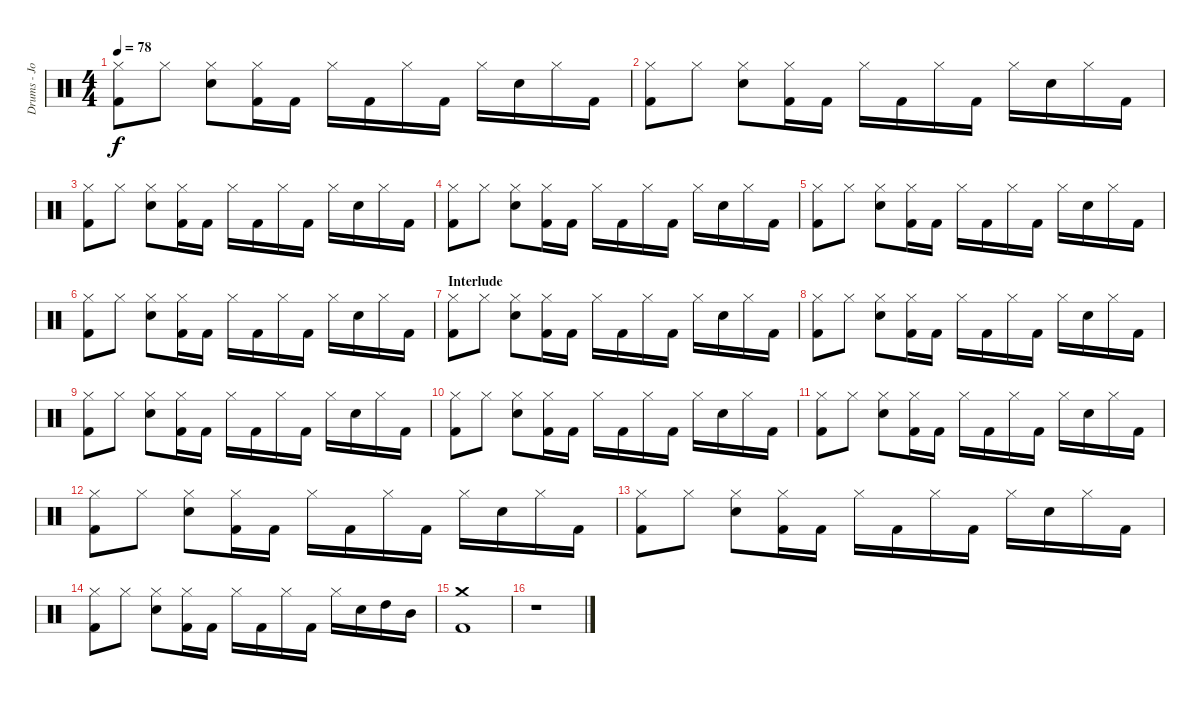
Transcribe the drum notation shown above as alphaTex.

\track ("Drums - Jorg Michael" "Drums - Jo") {instrument percussion}
\staff {score}
\articulation defaults
\ts (4 4)
\tempo 78
\clef neutral
\ks c
("Hi-Hat (closed)" "Kick (hit) 2").8{dy f} "Hi-Hat (closed)".8 ("Hi-Hat (closed)" "Electric Snare (hit)").8 ("Hi-Hat (closed)" "Kick (hit) 2").16 "Kick (hit) 2".16 "Hi-Hat (closed)".16 "Kick (hit) 2".16 "Hi-Hat (closed)".16 "Kick (hit) 2".16 "Hi-Hat (closed)".16 "Electric Snare (hit)".16 "Hi-Hat (closed)".16 "Kick (hit) 2".16 |
("Hi-Hat (closed)" "Kick (hit) 2").8 "Hi-Hat (closed)".8 ("Hi-Hat (closed)" "Electric Snare (hit)").8 ("Hi-Hat (closed)" "Kick (hit) 2").16 "Kick (hit) 2".16 "Hi-Hat (closed)".16 "Kick (hit) 2".16 "Hi-Hat (closed)".16 "Kick (hit) 2".16 "Hi-Hat (closed)".16 "Electric Snare (hit)".16 "Hi-Hat (closed)".16 "Kick (hit) 2".16 |
("Hi-Hat (closed)" "Kick (hit) 2").8 "Hi-Hat (closed)".8 ("Hi-Hat (closed)" "Electric Snare (hit)").8 ("Hi-Hat (closed)" "Kick (hit) 2").16 "Kick (hit) 2".16 "Hi-Hat (closed)".16 "Kick (hit) 2".16 "Hi-Hat (closed)".16 "Kick (hit) 2".16 "Hi-Hat (closed)".16 "Electric Snare (hit)".16 "Hi-Hat (closed)".16 "Kick (hit) 2".16 |
("Hi-Hat (closed)" "Kick (hit) 2").8 "Hi-Hat (closed)".8 ("Hi-Hat (closed)" "Electric Snare (hit)").8 ("Hi-Hat (closed)" "Kick (hit) 2").16 "Kick (hit) 2".16 "Hi-Hat (closed)".16 "Kick (hit) 2".16 "Hi-Hat (closed)".16 "Kick (hit) 2".16 "Hi-Hat (closed)".16 "Electric Snare (hit)".16 "Hi-Hat (closed)".16 "Kick (hit) 2".16 |
("Hi-Hat (closed)" "Kick (hit) 2").8 "Hi-Hat (closed)".8 ("Hi-Hat (closed)" "Electric Snare (hit)").8 ("Hi-Hat (closed)" "Kick (hit) 2").16 "Kick (hit) 2".16 "Hi-Hat (closed)".16 "Kick (hit) 2".16 "Hi-Hat (closed)".16 "Kick (hit) 2".16 "Hi-Hat (closed)".16 "Electric Snare (hit)".16 "Hi-Hat (closed)".16 "Kick (hit) 2".16 |
("Hi-Hat (closed)" "Kick (hit) 2").8 "Hi-Hat (closed)".8 ("Hi-Hat (closed)" "Electric Snare (hit)").8 ("Hi-Hat (closed)" "Kick (hit) 2").16 "Kick (hit) 2".16 "Hi-Hat (closed)".16 "Kick (hit) 2".16 "Hi-Hat (closed)".16 "Kick (hit) 2".16 "Hi-Hat (closed)".16 "Electric Snare (hit)".16 "Hi-Hat (closed)".16 "Kick (hit) 2".16 |
\section ("" "Interlude")
("Hi-Hat (closed)" "Kick (hit) 2").8 "Hi-Hat (closed)".8 ("Hi-Hat (closed)" "Electric Snare (hit)").8 ("Hi-Hat (closed)" "Kick (hit) 2").16 "Kick (hit) 2".16 "Hi-Hat (closed)".16 "Kick (hit) 2".16 "Hi-Hat (closed)".16 "Kick (hit) 2".16 "Hi-Hat (closed)".16 "Electric Snare (hit)".16 "Hi-Hat (closed)".16 "Kick (hit) 2".16 |
("Hi-Hat (closed)" "Kick (hit) 2").8 "Hi-Hat (closed)".8 ("Hi-Hat (closed)" "Electric Snare (hit)").8 ("Hi-Hat (closed)" "Kick (hit) 2").16 "Kick (hit) 2".16 "Hi-Hat (closed)".16 "Kick (hit) 2".16 "Hi-Hat (closed)".16 "Kick (hit) 2".16 "Hi-Hat (closed)".16 "Electric Snare (hit)".16 "Hi-Hat (closed)".16 "Kick (hit) 2".16 |
("Hi-Hat (closed)" "Kick (hit) 2").8 "Hi-Hat (closed)".8 ("Hi-Hat (closed)" "Electric Snare (hit)").8 ("Hi-Hat (closed)" "Kick (hit) 2").16 "Kick (hit) 2".16 "Hi-Hat (closed)".16 "Kick (hit) 2".16 "Hi-Hat (closed)".16 "Kick (hit) 2".16 "Hi-Hat (closed)".16 "Electric Snare (hit)".16 "Hi-Hat (closed)".16 "Kick (hit) 2".16 |
("Hi-Hat (closed)" "Kick (hit) 2").8 "Hi-Hat (closed)".8 ("Hi-Hat (closed)" "Electric Snare (hit)").8 ("Hi-Hat (closed)" "Kick (hit) 2").16 "Kick (hit) 2".16 "Hi-Hat (closed)".16 "Kick (hit) 2".16 "Hi-Hat (closed)".16 "Kick (hit) 2".16 "Hi-Hat (closed)".16 "Electric Snare (hit)".16 "Hi-Hat (closed)".16 "Kick (hit) 2".16 |
("Hi-Hat (closed)" "Kick (hit) 2").8 "Hi-Hat (closed)".8 ("Hi-Hat (closed)" "Electric Snare (hit)").8 ("Hi-Hat (closed)" "Kick (hit) 2").16 "Kick (hit) 2".16 "Hi-Hat (closed)".16 "Kick (hit) 2".16 "Hi-Hat (closed)".16 "Kick (hit) 2".16 "Hi-Hat (closed)".16 "Electric Snare (hit)".16 "Hi-Hat (closed)".16 "Kick (hit) 2".16 |
("Hi-Hat (closed)" "Kick (hit) 2").8 "Hi-Hat (closed)".8 ("Hi-Hat (closed)" "Electric Snare (hit)").8 ("Hi-Hat (closed)" "Kick (hit) 2").16 "Kick (hit) 2".16 "Hi-Hat (closed)".16 "Kick (hit) 2".16 "Hi-Hat (closed)".16 "Kick (hit) 2".16 "Hi-Hat (closed)".16 "Electric Snare (hit)".16 "Hi-Hat (closed)".16 "Kick (hit) 2".16 |
("Hi-Hat (closed)" "Kick (hit) 2").8 "Hi-Hat (closed)".8 ("Hi-Hat (closed)" "Electric Snare (hit)").8 ("Hi-Hat (closed)" "Kick (hit) 2").16 "Kick (hit) 2".16 "Hi-Hat (closed)".16 "Kick (hit) 2".16 "Hi-Hat (closed)".16 "Kick (hit) 2".16 "Hi-Hat (closed)".16 "Electric Snare (hit)".16 "Hi-Hat (closed)".16 "Kick (hit) 2".16 |
("Hi-Hat (closed)" "Kick (hit) 2").8 "Hi-Hat (closed)".8 ("Hi-Hat (closed)" "Electric Snare (hit)").8 ("Hi-Hat (closed)" "Kick (hit) 2").16 "Kick (hit) 2".16 "Hi-Hat (closed)".16 "Kick (hit) 2".16 "Hi-Hat (closed)".16 "Kick (hit) 2".16 "Hi-Hat (closed)".16 "Electric Snare (hit)".16 "High Tom (hit)".16 "Mid Tom (hit)".16 |
("Crash medium (hit)" "Kick (hit) 2").1 |
r.1
